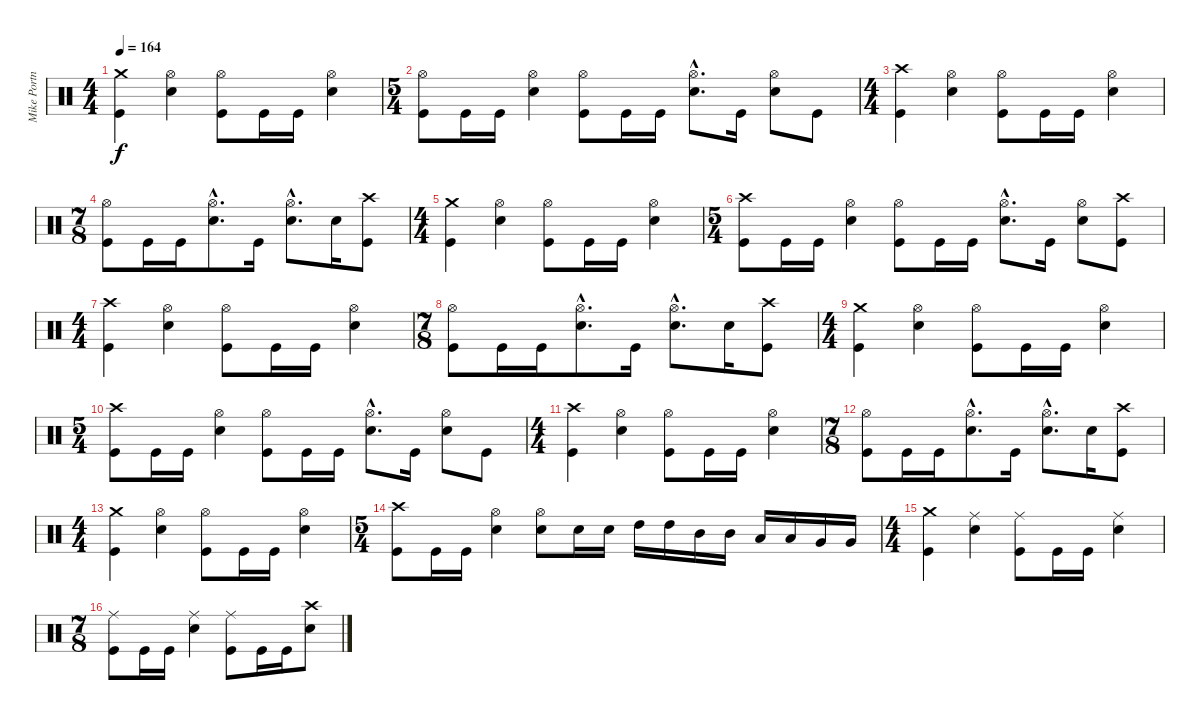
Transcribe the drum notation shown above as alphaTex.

\track ("Mike Portnoy" "Mike Portn") {instrument percussion}
\staff {score}
\articulation defaults
\ts (4 4)
\tempo 164
\clef neutral
\ks c
("Crash medium (hit)" "Kick (hit)").4{dy f} ("Hi-Hat (open)" "Electric Snare (hit)").4 ("Hi-Hat (open)" "Kick (hit)").8 "Kick (hit)".16 "Kick (hit)".16 ("Hi-Hat (open)" "Electric Snare (hit)").4 |
\ts (5 4)
("Hi-Hat (open)" "Kick (hit)").8 "Kick (hit)".16 "Kick (hit)".16 ("Hi-Hat (open)" "Electric Snare (hit)").4 ("Hi-Hat (open)" "Kick (hit)").8 "Kick (hit)".16 "Kick (hit)".16 ("Hi-Hat (open)"{hac} "Electric Snare (hit)"{hac}).8{d} "Kick (hit)".16 ("Hi-Hat (open)" "Electric Snare (hit)").8 "Kick (hit)".8 |
\ts (4 4)
("Crash high (hit)" "Kick (hit)").4 ("Hi-Hat (open)" "Electric Snare (hit)").4 ("Hi-Hat (open)" "Kick (hit)").8 "Kick (hit)".16 "Kick (hit)".16 ("Hi-Hat (open)" "Electric Snare (hit)").4 |
\ts (7 8)
("Hi-Hat (open)" "Kick (hit)").8 "Kick (hit)".16 "Kick (hit)".16 ("Hi-Hat (open)"{hac} "Electric Snare (hit)"{hac}).8{d} "Kick (hit)".16 ("Hi-Hat (open)"{hac} "Electric Snare (hit)"{hac}).8{d} "Electric Snare (hit)".16 ("Crash high (hit)" "Kick (hit)").8 |
\ts (4 4)
("Crash medium (hit)" "Kick (hit)").4 ("Hi-Hat (open)" "Electric Snare (hit)").4 ("Hi-Hat (open)" "Kick (hit)").8 "Kick (hit)".16 "Kick (hit)".16 ("Hi-Hat (open)" "Electric Snare (hit)").4 |
\ts (5 4)
("Crash high (hit)" "Kick (hit)").8 "Kick (hit)".16 "Kick (hit)".16 ("Hi-Hat (open)" "Electric Snare (hit)").4 ("Hi-Hat (open)" "Kick (hit)").8 "Kick (hit)".16 "Kick (hit)".16 ("Hi-Hat (open)"{hac} "Electric Snare (hit)"{hac}).8{d} "Kick (hit)".16 ("Hi-Hat (open)" "Electric Snare (hit)").8 ("Crash high (hit)" "Kick (hit)").8 |
\ts (4 4)
("Crash high (hit)" "Kick (hit)").4 ("Hi-Hat (open)" "Electric Snare (hit)").4 ("Hi-Hat (open)" "Kick (hit)").8 "Kick (hit)".16 "Kick (hit)".16 ("Hi-Hat (open)" "Electric Snare (hit)").4 |
\ts (7 8)
("Hi-Hat (open)" "Kick (hit)").8 "Kick (hit)".16 "Kick (hit)".16 ("Hi-Hat (open)"{hac} "Electric Snare (hit)"{hac}).8{d} "Kick (hit)".16 ("Hi-Hat (open)"{hac} "Electric Snare (hit)"{hac}).8{d} "Electric Snare (hit)".16 ("Crash high (hit)" "Kick (hit)").8 |
\ts (4 4)
("Crash medium (hit)" "Kick (hit)").4 ("Hi-Hat (open)" "Electric Snare (hit)").4 ("Hi-Hat (open)" "Kick (hit)").8 "Kick (hit)".16 "Kick (hit)".16 ("Hi-Hat (open)" "Electric Snare (hit)").4 |
\ts (5 4)
("Crash high (hit)" "Kick (hit)").8 "Kick (hit)".16 "Kick (hit)".16 ("Hi-Hat (open)" "Electric Snare (hit)").4 ("Hi-Hat (open)" "Kick (hit)").8 "Kick (hit)".16 "Kick (hit)".16 ("Hi-Hat (open)"{hac} "Electric Snare (hit)"{hac}).8{d} "Kick (hit)".16 ("Hi-Hat (open)" "Electric Snare (hit)").8 "Kick (hit)".8 |
\ts (4 4)
("Crash high (hit)" "Kick (hit)").4 ("Hi-Hat (open)" "Electric Snare (hit)").4 ("Hi-Hat (open)" "Kick (hit)").8 "Kick (hit)".16 "Kick (hit)".16 ("Hi-Hat (open)" "Electric Snare (hit)").4 |
\ts (7 8)
("Hi-Hat (open)" "Kick (hit)").8 "Kick (hit)".16 "Kick (hit)".16 ("Hi-Hat (open)"{hac} "Electric Snare (hit)"{hac}).8{d} "Kick (hit)".16 ("Hi-Hat (open)"{hac} "Electric Snare (hit)"{hac}).8{d} "Electric Snare (hit)".16 ("Crash high (hit)" "Kick (hit)").8 |
\ts (4 4)
("Crash medium (hit)" "Kick (hit)").4 ("Hi-Hat (open)" "Electric Snare (hit)").4 ("Hi-Hat (open)" "Kick (hit)").8 "Kick (hit)".16 "Kick (hit)".16 ("Hi-Hat (open)" "Electric Snare (hit)").4 |
\ts (5 4)
("Crash high (hit)" "Kick (hit)").8 "Kick (hit)".16 "Kick (hit)".16 ("Hi-Hat (open)" "Electric Snare (hit)").4 ("Hi-Hat (open)" "Electric Snare (hit)").8 "Electric Snare (hit)".16 "Electric Snare (hit)".16 "High Tom (hit)".16 "High Tom (hit)".16 "Mid Tom (hit)".16 "Mid Tom (hit)".16 "Low Tom (hit)".16 "Low Tom (hit)".16 "Very Low Tom (hit)".16 "Very Low Tom (hit)".16 |
\ts (4 4)
("Crash medium (hit)" "Kick (hit)").4 ("Ride (middle)" "Electric Snare (hit)").4 ("Ride (middle)" "Kick (hit)").8 "Kick (hit)".16 "Kick (hit)".16 ("Ride (middle)" "Electric Snare (hit)").4 |
\ts (7 8)
("Ride (middle)" "Kick (hit)").8 "Kick (hit)".16 "Kick (hit)".16 ("Ride (middle)" "Electric Snare (hit)").4 ("Ride (middle)" "Kick (hit)").8 "Kick (hit)".16 "Kick (hit)".16 ("Crash high (hit)" "Electric Snare (hit)").8
